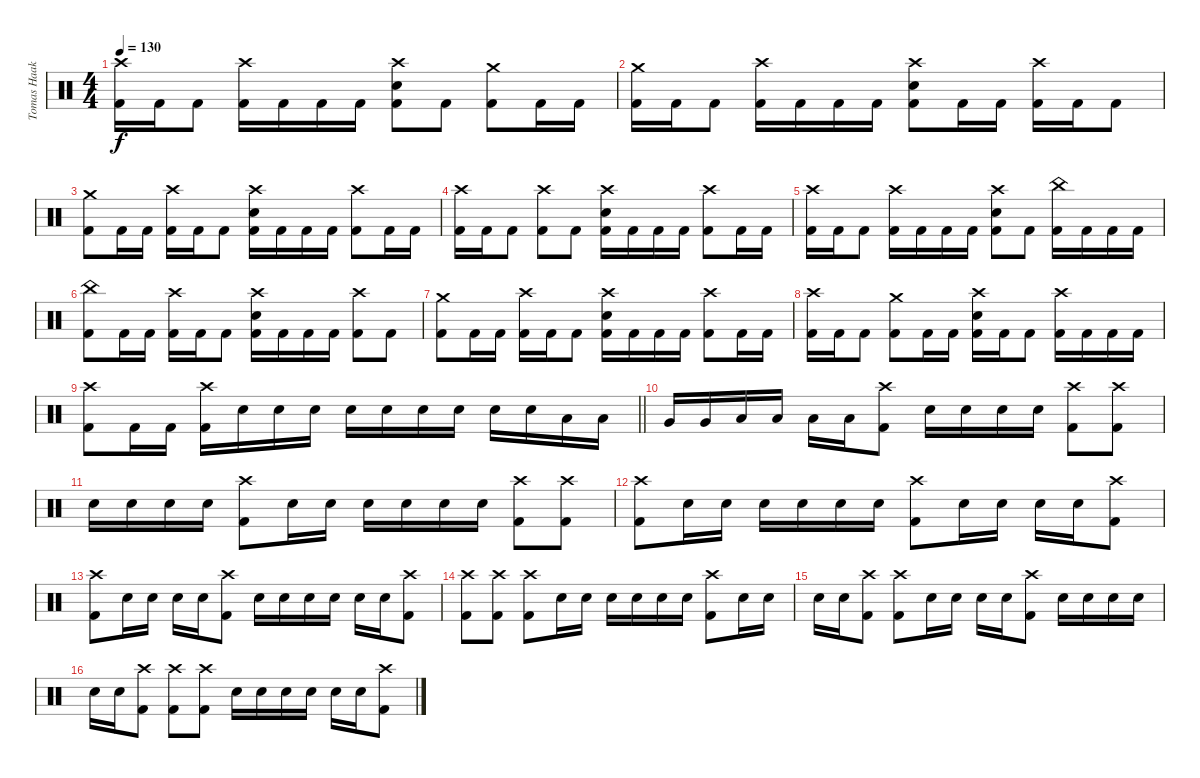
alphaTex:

\track ("Tomas Haake" "Tomas Haak") {instrument percussion}
\staff {score}
\articulation defaults
\ts (4 4)
\tempo 130
\clef neutral
\ks c
("Crash high (hit)" "Kick (hit) 2").16{dy f} "Kick (hit) 2".16 "Kick (hit) 2".8 ("Crash high (hit)" "Kick (hit) 2").16 "Kick (hit) 2".16 "Kick (hit) 2".16 "Kick (hit) 2".16 ("Crash high (hit)" "Electric Snare (hit)" "Kick (hit) 2").8 "Kick (hit) 2".8 ("Crash medium (hit)" "Kick (hit) 2").8 "Kick (hit) 2".16 "Kick (hit) 2".16 |
("Crash medium (hit)" "Kick (hit) 2").16 "Kick (hit) 2".16 "Kick (hit) 2".8 ("Crash high (hit)" "Kick (hit) 2").16 "Kick (hit) 2".16 "Kick (hit) 2".16 "Kick (hit) 2".16 ("Crash high (hit)" "Electric Snare (hit)" "Kick (hit) 2").8 "Kick (hit) 2".16 "Kick (hit) 2".16 ("Crash high (hit)" "Kick (hit) 2").16 "Kick (hit) 2".16 "Kick (hit) 2".8 |
("Crash medium (hit)" "Kick (hit) 2").8 "Kick (hit) 2".16 "Kick (hit) 2".16 ("Crash high (hit)" "Kick (hit) 2").16 "Kick (hit) 2".16 "Kick (hit) 2".8 ("Crash high (hit)" "Electric Snare (hit)" "Kick (hit) 2").16 "Kick (hit) 2".16 "Kick (hit) 2".16 "Kick (hit) 2".16 ("Crash high (hit)" "Kick (hit) 2").8 "Kick (hit) 2".16 "Kick (hit) 2".16 |
("Crash high (hit)" "Kick (hit) 2").16 "Kick (hit) 2".16 "Kick (hit) 2".8 ("Crash high (hit)" "Kick (hit) 2").8 "Kick (hit) 2".8 ("Crash high (hit)" "Electric Snare (hit)" "Kick (hit) 2").16 "Kick (hit) 2".16 "Kick (hit) 2".16 "Kick (hit) 2".16 ("Crash high (hit)" "Kick (hit) 2").8 "Kick (hit) 2".16 "Kick (hit) 2".16 |
("Crash high (hit)" "Kick (hit) 2").16 "Kick (hit) 2".16 "Kick (hit) 2".8 ("Crash high (hit)" "Kick (hit) 2").16 "Kick (hit) 2".16 "Kick (hit) 2".16 "Kick (hit) 2".16 ("Crash high (hit)" "Electric Snare (hit)" "Kick (hit) 2").8 "Kick (hit) 2".8 ("China (hit)" "Kick (hit) 2").16 "Kick (hit) 2".16 "Kick (hit) 2".16 "Kick (hit) 2".16 |
("China (hit)" "Kick (hit) 2").8 "Kick (hit) 2".16 "Kick (hit) 2".16 ("Crash high (hit)" "Kick (hit) 2").16 "Kick (hit) 2".16 "Kick (hit) 2".8 ("Crash high (hit)" "Electric Snare (hit)" "Kick (hit) 2").16 "Kick (hit) 2".16 "Kick (hit) 2".16 "Kick (hit) 2".16 ("Crash high (hit)" "Kick (hit) 2").8 "Kick (hit) 2".8 |
("Crash medium (hit)" "Kick (hit) 2").8 "Kick (hit) 2".16 "Kick (hit) 2".16 ("Crash high (hit)" "Kick (hit) 2").16 "Kick (hit) 2".16 "Kick (hit) 2".8 ("Crash high (hit)" "Electric Snare (hit)" "Kick (hit) 2").16 "Kick (hit) 2".16 "Kick (hit) 2".16 "Kick (hit) 2".16 ("Crash high (hit)" "Kick (hit) 2").8 "Kick (hit) 2".16 "Kick (hit) 2".16 |
("Crash high (hit)" "Kick (hit) 2").16 "Kick (hit) 2".16 "Kick (hit) 2".8 ("Crash medium (hit)" "Kick (hit) 2").8 "Kick (hit) 2".16 "Kick (hit) 2".16 ("Crash high (hit)" "Electric Snare (hit)" "Kick (hit) 2").16 "Kick (hit) 2".16 "Kick (hit) 2".8 ("Crash high (hit)" "Kick (hit) 2").16 "Kick (hit) 2".16 "Kick (hit) 2".16 "Kick (hit) 2".16 |
\barLineRight lightlight
("Crash high (hit)" "Kick (hit) 2").8 "Kick (hit) 2".16 "Kick (hit) 2".16 ("Crash high (hit)" "Kick (hit) 2").16 "Electric Snare (hit)".16 "Electric Snare (hit)".16 "Electric Snare (hit)".16 "Electric Snare (hit)".16 "Electric Snare (hit)".16 "Electric Snare (hit)".16 "Electric Snare (hit)".16 "Electric Snare (hit)".16 "Electric Snare (hit)".16 "Low Tom (hit)".16 "Low Tom (hit)".16 |
"Very Low Tom (hit)".16 "Very Low Tom (hit)".16 "Low Floor Tom (hit)".16 "Low Floor Tom (hit)".16 "Low Floor Tom (hit)".16 "Low Floor Tom (hit)".16 ("Crash high (hit)" "Kick (hit) 2").8 "Electric Snare (hit)".16 "Electric Snare (hit)".16 "Electric Snare (hit)".16 "Electric Snare (hit)".16 ("Crash high (hit)" "Kick (hit) 2").8 ("Crash high (hit)" "Kick (hit) 2").8 |
"Electric Snare (hit)".16 "Electric Snare (hit)".16 "Electric Snare (hit)".16 "Electric Snare (hit)".16 ("Crash high (hit)" "Kick (hit) 2").8 "Electric Snare (hit)".16 "Electric Snare (hit)".16 "Electric Snare (hit)".16 "Electric Snare (hit)".16 "Electric Snare (hit)".16 "Electric Snare (hit)".16 ("Crash high (hit)" "Kick (hit) 2").8 ("Crash high (hit)" "Kick (hit) 2").8 |
("Crash high (hit)" "Kick (hit) 2").8 "Electric Snare (hit)".16 "Electric Snare (hit)".16 "Electric Snare (hit)".16 "Electric Snare (hit)".16 "Electric Snare (hit)".16 "Electric Snare (hit)".16 ("Crash high (hit)" "Kick (hit) 2").8 "Electric Snare (hit)".16 "Electric Snare (hit)".16 "Electric Snare (hit)".16 "Electric Snare (hit)".16 ("Crash high (hit)" "Kick (hit) 2").8 |
("Crash high (hit)" "Kick (hit) 2").8 "Electric Snare (hit)".16 "Electric Snare (hit)".16 "Electric Snare (hit)".16 "Electric Snare (hit)".16 ("Crash high (hit)" "Kick (hit) 2").8 "Electric Snare (hit)".16 "Electric Snare (hit)".16 "Electric Snare (hit)".16 "Electric Snare (hit)".16 "Electric Snare (hit)".16 "Electric Snare (hit)".16 ("Crash high (hit)" "Kick (hit) 2").8 |
("Crash high (hit)" "Kick (hit) 2").8 ("Crash high (hit)" "Kick (hit) 2").8 ("Crash high (hit)" "Kick (hit) 2").8 "Electric Snare (hit)".16 "Electric Snare (hit)".16 "Electric Snare (hit)".16 "Electric Snare (hit)".16 "Electric Snare (hit)".16 "Electric Snare (hit)".16 ("Crash high (hit)" "Kick (hit) 2").8 "Electric Snare (hit)".16 "Electric Snare (hit)".16 |
"Electric Snare (hit)".16 "Electric Snare (hit)".16 ("Crash high (hit)" "Kick (hit) 2").8 ("Crash high (hit)" "Kick (hit) 2").8 "Electric Snare (hit)".16 "Electric Snare (hit)".16 "Electric Snare (hit)".16 "Electric Snare (hit)".16 ("Crash high (hit)" "Kick (hit) 2").8 "Electric Snare (hit)".16 "Electric Snare (hit)".16 "Electric Snare (hit)".16 "Electric Snare (hit)".16 |
"Electric Snare (hit)".16 "Electric Snare (hit)".16 ("Crash high (hit)" "Kick (hit) 2").8 ("Crash high (hit)" "Kick (hit) 2").8 ("Crash high (hit)" "Kick (hit) 2").8 "Electric Snare (hit)".16 "Electric Snare (hit)".16 "Electric Snare (hit)".16 "Electric Snare (hit)".16 "Electric Snare (hit)".16 "Electric Snare (hit)".16 ("Crash high (hit)" "Kick (hit) 2").8
